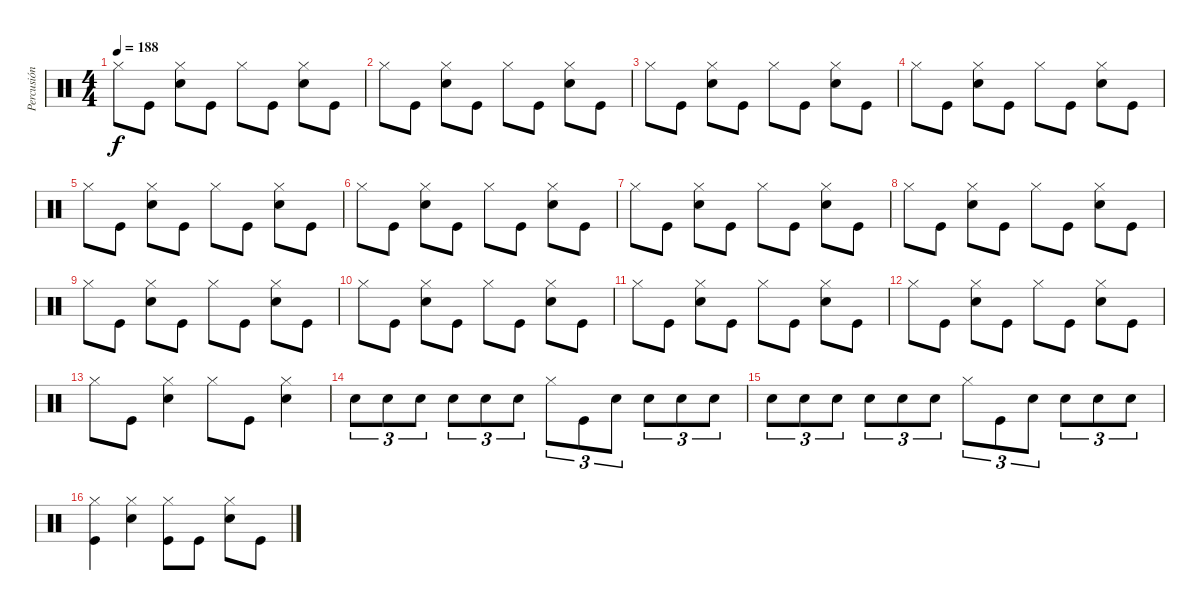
\track ("Percusión" "Percusión") {instrument percussion}
\staff {score}
\articulation defaults
\ts (4 4)
\tempo 188
\clef neutral
\ks c "Hi-Hat (closed)".8{dy f} "Kick (hit)".8
("Hi-Hat (closed)" "Snare (hit) 2").8 "Kick (hit)".8 "Hi-Hat (closed)".8 "Kick (hit)".8 ("Hi-Hat (closed)" "Snare (hit) 2").8 "Kick (hit)".8 |
"Hi-Hat (closed)".8 "Kick (hit)".8 ("Hi-Hat (closed)" "Snare (hit) 2").8 "Kick (hit)".8 "Hi-Hat (closed)".8 "Kick (hit)".8 ("Hi-Hat (closed)" "Snare (hit) 2").8 "Kick (hit)".8 |
"Hi-Hat (closed)".8 "Kick (hit)".8 ("Hi-Hat (closed)" "Snare (hit) 2").8 "Kick (hit)".8 "Hi-Hat (closed)".8 "Kick (hit)".8 ("Hi-Hat (closed)" "Snare (hit) 2").8 "Kick (hit)".8 |
"Hi-Hat (closed)".8 "Kick (hit)".8 ("Hi-Hat (closed)" "Snare (hit) 2").8 "Kick (hit)".8 "Hi-Hat (closed)".8 "Kick (hit)".8 ("Hi-Hat (closed)" "Snare (hit) 2").8 "Kick (hit)".8 |
"Hi-Hat (closed)".8 "Kick (hit)".8 ("Hi-Hat (closed)" "Snare (hit) 2").8 "Kick (hit)".8 "Hi-Hat (closed)".8 "Kick (hit)".8 ("Hi-Hat (closed)" "Snare (hit) 2").8 "Kick (hit)".8 |
"Hi-Hat (closed)".8 "Kick (hit)".8 ("Hi-Hat (closed)" "Snare (hit) 2").8 "Kick (hit)".8 "Hi-Hat (closed)".8 "Kick (hit)".8 ("Hi-Hat (closed)" "Snare (hit) 2").8 "Kick (hit)".8 |
"Hi-Hat (closed)".8 "Kick (hit)".8 ("Hi-Hat (closed)" "Snare (hit) 2").8 "Kick (hit)".8 "Hi-Hat (closed)".8 "Kick (hit)".8 ("Hi-Hat (closed)" "Snare (hit) 2").8 "Kick (hit)".8 |
"Hi-Hat (closed)".8 "Kick (hit)".8 ("Hi-Hat (closed)" "Snare (hit) 2").8 "Kick (hit)".8 "Hi-Hat (closed)".8 "Kick (hit)".8 ("Hi-Hat (closed)" "Snare (hit) 2").8 "Kick (hit)".8 |
"Hi-Hat (closed)".8 "Kick (hit)".8 ("Hi-Hat (closed)" "Snare (hit) 2").8 "Kick (hit)".8 "Hi-Hat (closed)".8 "Kick (hit)".8 ("Hi-Hat (closed)" "Snare (hit) 2").8 "Kick (hit)".8 |
"Hi-Hat (closed)".8 "Kick (hit)".8 ("Hi-Hat (closed)" "Snare (hit) 2").8 "Kick (hit)".8 "Hi-Hat (closed)".8 "Kick (hit)".8 ("Hi-Hat (closed)" "Snare (hit) 2").8 "Kick (hit)".8 |
"Hi-Hat (closed)".8 "Kick (hit)".8 ("Hi-Hat (closed)" "Snare (hit) 2").8 "Kick (hit)".8 "Hi-Hat (closed)".8 "Kick (hit)".8 ("Hi-Hat (closed)" "Snare (hit) 2").8 "Kick (hit)".8 |
"Hi-Hat (closed)".8 "Kick (hit)".8 ("Hi-Hat (closed)" "Snare (hit) 2").8 "Kick (hit)".8 "Hi-Hat (closed)".8 "Kick (hit)".8 ("Hi-Hat (closed)" "Snare (hit) 2").8 "Kick (hit)".8 |
"Hi-Hat (closed)".8 "Kick (hit)".8 ("Hi-Hat (closed)" "Snare (hit) 2").4 "Hi-Hat (closed)".8 "Kick (hit)".8 ("Hi-Hat (closed)" "Snare (hit) 2").4 |
"Snare (hit) 2".8{tu (3 2)} "Snare (hit) 2".8{tu (3 2)} "Snare (hit) 2".8{tu (3 2)} "Snare (hit) 2".8{tu (3 2)} "Snare (hit) 2".8{tu (3 2)} "Snare (hit) 2".8{tu (3 2)} "Hi-Hat (closed)".8{tu (3 2)} "Kick (hit)".8{tu (3 2)} "Snare (hit) 2".8{tu (3 2)} "Snare (hit) 2".8{tu (3 2)} "Snare (hit) 2".8{tu (3 2)} "Snare (hit) 2".8{tu (3 2)} |
"Snare (hit) 2".8{tu (3 2)} "Snare (hit) 2".8{tu (3 2)} "Snare (hit) 2".8{tu (3 2)} "Snare (hit) 2".8{tu (3 2)} "Snare (hit) 2".8{tu (3 2)} "Snare (hit) 2".8{tu (3 2)} "Hi-Hat (closed)".8{tu (3 2)} "Kick (hit)".8{tu (3 2)} "Snare (hit) 2".8{tu (3 2)} "Snare (hit) 2".8{tu (3 2)} "Snare (hit) 2".8{tu (3 2)} "Snare (hit) 2".8{tu (3 2)} |
("Hi-Hat (closed)" "Kick (hit)").4 ("Hi-Hat (closed)" "Snare (hit) 2").4 ("Hi-Hat (closed)" "Kick (hit)").8 "Kick (hit)".8 ("Hi-Hat (closed)" "Snare (hit) 2").8 "Kick (hit)".8
